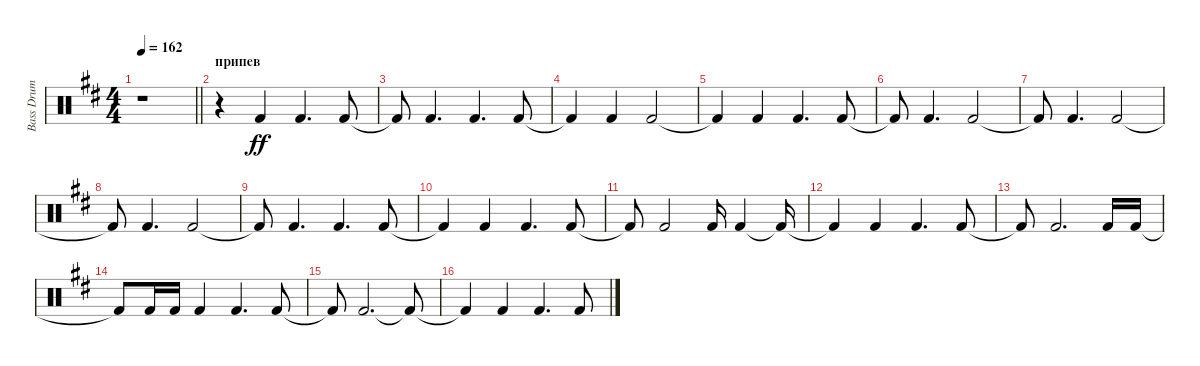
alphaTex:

\track ("Bass Drum" "Bass Drum") {instrument percussion}
\staff {score}
\articulation defaults
\ts (4 4)
\tempo 162
\clef neutral
\barLineRight lightlight
\ks bminor
r.1{dy ff} |
\section ("" "припев")
r.4 "Kick (hit) 2".4 "Kick (hit) 2".4{d} "Kick (hit) 2".8 |
"Kick (hit) 2"{t}.8 "Kick (hit) 2".4{d} "Kick (hit) 2".4{d} "Kick (hit) 2".8 |
"Kick (hit) 2"{t}.4 "Kick (hit) 2".4 "Kick (hit) 2".2 |
"Kick (hit) 2"{t}.4 "Kick (hit) 2".4 "Kick (hit) 2".4{d} "Kick (hit) 2".8 |
"Kick (hit) 2"{t}.8 "Kick (hit) 2".4{d} "Kick (hit) 2".2 |
"Kick (hit) 2"{t}.8 "Kick (hit) 2".4{d} "Kick (hit) 2".2 |
"Kick (hit) 2"{t}.8 "Kick (hit) 2".4{d} "Kick (hit) 2".2 |
"Kick (hit) 2"{t}.8 "Kick (hit) 2".4{d} "Kick (hit) 2".4{d} "Kick (hit) 2".8 |
"Kick (hit) 2"{t}.4 "Kick (hit) 2".4 "Kick (hit) 2".4{d} "Kick (hit) 2".8 |
"Kick (hit) 2"{t}.8 "Kick (hit) 2".2 "Kick (hit) 2".16 "Kick (hit) 2".4 "Kick (hit) 2"{t}.16 |
"Kick (hit) 2"{t}.4 "Kick (hit) 2".4 "Kick (hit) 2".4{d} "Kick (hit) 2".8 |
"Kick (hit) 2"{t}.8 "Kick (hit) 2".2{d} "Kick (hit) 2".16 "Kick (hit) 2".16 |
"Kick (hit) 2"{t}.8 "Kick (hit) 2".16 "Kick (hit) 2".16 "Kick (hit) 2".4 "Kick (hit) 2".4{d} "Kick (hit) 2".8 |
"Kick (hit) 2"{t}.8 "Kick (hit) 2".2{d} "Kick (hit) 2"{t}.8 |
"Kick (hit) 2"{t}.4 "Kick (hit) 2".4 "Kick (hit) 2".4{d} "Kick (hit) 2".8
